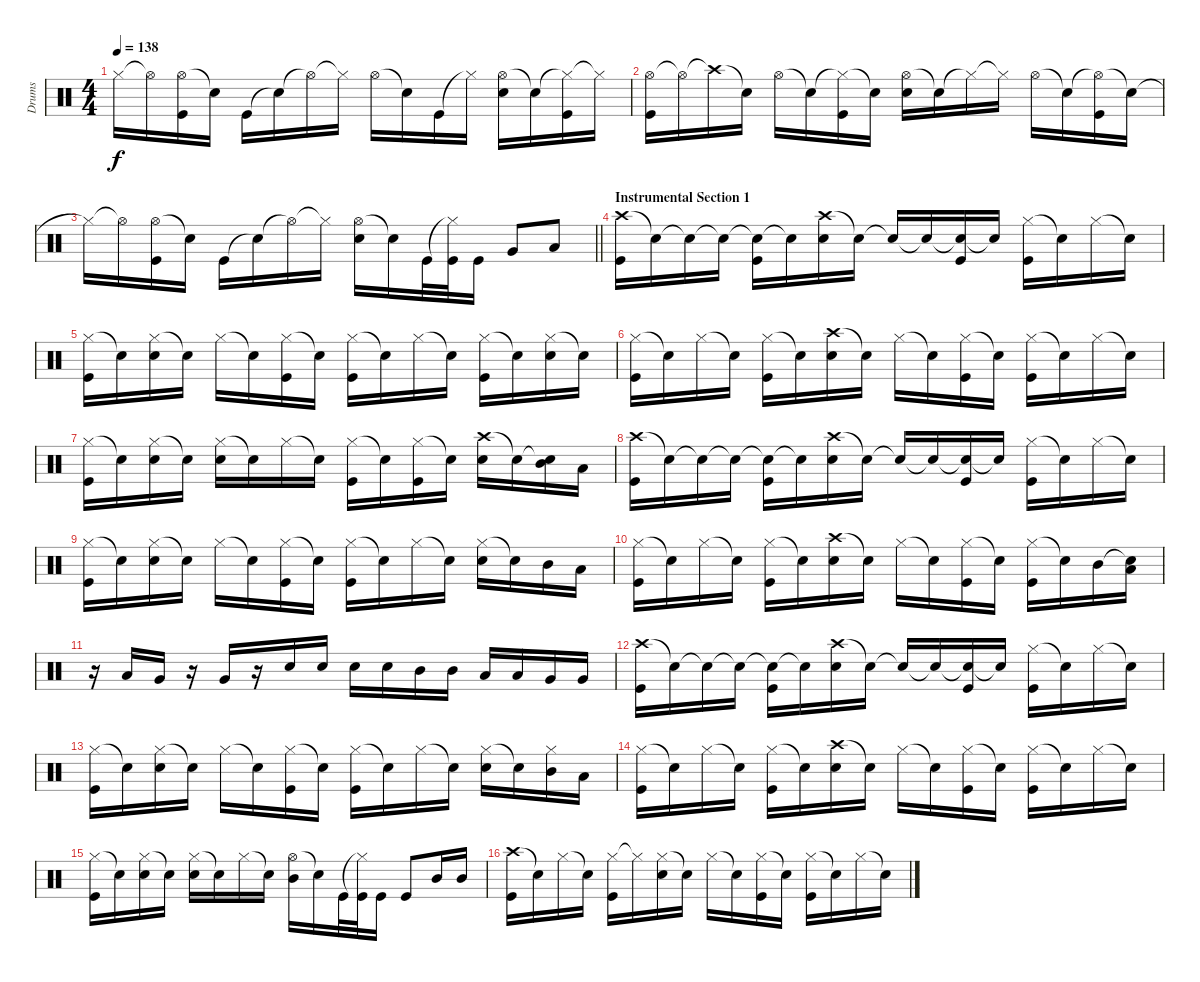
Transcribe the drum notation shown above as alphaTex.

\track ("Drums" "Drums") {instrument percussion}
\staff {score}
\articulation defaults
\ts (4 4)
\tempo 138
\clef neutral
\ks c "Hi-Hat (closed)"{t}.16{dy f} "Hi-Hat (open)"{t}.16
("Hi-Hat (open)" "Kick (hit)").16 "Snare (hit)"{t}.16 "Kick (hit)".16 "Snare (hit)"{t}.16 "Hi-Hat (open)"{t}.16 "Hi-Hat (closed)"{t}.16 "Hi-Hat (open)".16 "Snare (hit)"{t}.16 "Kick (hit)".16 "Hi-Hat (closed)"{t}.16 ("Hi-Hat (open)" "Electric Snare (hit)").16 "Snare (hit)"{t}.16 ("Hi-Hat (closed)"{t} "Kick (hit)").16 "Hi-Hat (closed)"{t}.16 |
("Hi-Hat (open)" "Kick (hit)").16 "Hi-Hat (open)"{t}.16 "Crash high (hit)"{t}.16 "Snare (hit)"{t}.16 "Hi-Hat (open)".16 "Snare (hit)"{t}.16 ("Hi-Hat (closed)"{t} "Kick (hit)").16 "Snare (hit)"{t}.16 ("Hi-Hat (open)" "Electric Snare (hit)").16 "Snare (hit)"{t}.16 "Hi-Hat (closed)"{t}.16 "Hi-Hat (closed)"{t}.16 "Hi-Hat (open)".16 "Snare (hit)"{t}.16 ("Hi-Hat (open)"{t} "Kick (hit)").16 "Snare (hit)"{t}.16 |
\barLineRight lightlight "Hi-Hat (closed)"{t}.16 "Hi-Hat (open)"{t}.16
("Hi-Hat (open)" "Kick (hit)").16 "Snare (hit)"{t}.16 "Kick (hit)".16 "Snare (hit)"{t}.16 "Hi-Hat (open)"{t}.16 "Hi-Hat (closed)"{t}.16 ("Hi-Hat (open)" "Electric Snare (hit)").16 "Snare (hit)"{t}.16 "Kick (hit)".32 ("Hi-Hat (closed)"{t} "Kick (hit)").32 "Kick (hit)".16 "Very Low Tom (hit)".8 "Low Floor Tom (hit)".8 |
\section ("" "Instrumental Section 1")
("Crash high (hit)" "Kick (hit)").16 "Snare (hit)"{t}.16 "Snare (hit)"{t}.16 "Snare (hit)"{t}.16 ("Snare (hit)"{t} "Kick (hit)").16 "Snare (hit)"{t}.16 ("Crash high (hit)" "Electric Snare (hit)").16 "Snare (hit)"{t}.16 "Snare (hit)"{t}.16 "Snare (hit)"{t}.16 ("Snare (hit)"{t} "Kick (hit)").16 "Snare (hit)"{t}.16 ("Hi-Hat (closed)" "Kick (hit)").16 "Snare (hit)"{t}.16 "Hi-Hat (closed)".16 "Snare (hit)"{t}.16 |
("Hi-Hat (closed)" "Kick (hit)").16 "Snare (hit)"{t}.16 ("Hi-Hat (closed)" "Electric Snare (hit)").16 "Snare (hit)"{t}.16 "Hi-Hat (closed)".16 "Snare (hit)"{t}.16 ("Hi-Hat (closed)" "Kick (hit)").16 "Snare (hit)"{t}.16 ("Hi-Hat (closed)" "Kick (hit)").16 "Snare (hit)"{t}.16 "Hi-Hat (closed)".16 "Snare (hit)"{t}.16 ("Hi-Hat (closed)" "Kick (hit)").16 "Snare (hit)"{t}.16 ("Hi-Hat (closed)" "Electric Snare (hit)").16 "Snare (hit)"{t}.16 |
("Hi-Hat (closed)" "Kick (hit)").16 "Snare (hit)"{t}.16 "Hi-Hat (closed)".16 "Snare (hit)"{t}.16 ("Hi-Hat (closed)" "Kick (hit)").16 "Snare (hit)"{t}.16 ("Crash high (hit)" "Electric Snare (hit)").16 "Snare (hit)"{t}.16 "Hi-Hat (closed)".16 "Snare (hit)"{t}.16 ("Hi-Hat (closed)" "Kick (hit)").16 "Snare (hit)"{t}.16 ("Hi-Hat (closed)" "Kick (hit)").16 "Snare (hit)"{t}.16 "Hi-Hat (closed)".16 "Snare (hit)"{t}.16 |
("Hi-Hat (closed)" "Kick (hit)").16 "Snare (hit)"{t}.16 ("Hi-Hat (closed)" "Electric Snare (hit)").16 "Snare (hit)"{t}.16 ("Hi-Hat (closed)" "Electric Snare (hit)").16 "Snare (hit)"{t}.16 "Hi-Hat (closed)".16 "Snare (hit)"{t}.16 ("Hi-Hat (closed)" "Kick (hit)").16 "Snare (hit)"{t}.16 ("Hi-Hat (closed)" "Kick (hit)").16 "Snare (hit)"{t}.16 ("Crash high (hit)" "Electric Snare (hit)").16 "Snare (hit)"{t}.16 ("Snare (hit)"{t} "Mid Tom (hit)").16 "Low Tom (hit)".16 |
("Crash high (hit)" "Kick (hit)").16 "Snare (hit)"{t}.16 "Snare (hit)"{t}.16 "Snare (hit)"{t}.16 ("Snare (hit)"{t} "Kick (hit)").16 "Snare (hit)"{t}.16 ("Crash high (hit)" "Electric Snare (hit)").16 "Snare (hit)"{t}.16 "Snare (hit)"{t}.16 "Snare (hit)"{t}.16 ("Snare (hit)"{t} "Kick (hit)").16 "Snare (hit)"{t}.16 ("Hi-Hat (closed)" "Kick (hit)").16 "Snare (hit)"{t}.16 "Hi-Hat (closed)".16 "Snare (hit)"{t}.16 |
("Hi-Hat (closed)" "Kick (hit)").16 "Snare (hit)"{t}.16 ("Hi-Hat (closed)" "Electric Snare (hit)").16 "Snare (hit)"{t}.16 "Hi-Hat (closed)".16 "Snare (hit)"{t}.16 ("Hi-Hat (closed)" "Kick (hit)").16 "Snare (hit)"{t}.16 ("Hi-Hat (closed)" "Kick (hit)").16 "Snare (hit)"{t}.16 "Hi-Hat (closed)".16 "Snare (hit)"{t}.16 ("Hi-Hat (closed)" "Electric Snare (hit)").16 "Snare (hit)"{t}.16 "Mid Tom (hit)".16 "Low Tom (hit)".16 |
("Hi-Hat (closed)" "Kick (hit)").16 "Snare (hit)"{t}.16 "Hi-Hat (closed)".16 "Snare (hit)"{t}.16 ("Hi-Hat (closed)" "Kick (hit)").16 "Snare (hit)"{t}.16 ("Crash high (hit)" "Electric Snare (hit)").16 "Snare (hit)"{t}.16 "Hi-Hat (closed)".16 "Snare (hit)"{t}.16 ("Hi-Hat (closed)" "Kick (hit)").16 "Snare (hit)"{t}.16 ("Hi-Hat (closed)" "Kick (hit)").16 "Snare (hit)"{t}.16 "Mid Tom (hit)".16 ("Snare (hit)"{t} "Low Tom (hit)").16 |
r.16 "Low Tom (hit)".16 "Very Low Tom (hit)".16 r.16 "Very Low Tom (hit)".16 r.16 "Electric Snare (hit)".16 "Electric Snare (hit)".16 "Electric Snare (hit)".16 "Electric Snare (hit)".16 "Mid Tom (hit)".16 "Mid Tom (hit)".16 "Low Tom (hit)".16 "Low Tom (hit)".16 "Very Low Tom (hit)".16 "Very Low Tom (hit)".16 |
("Crash high (hit)" "Kick (hit)").16 "Snare (hit)"{t}.16 "Snare (hit)"{t}.16 "Snare (hit)"{t}.16 ("Snare (hit)"{t} "Kick (hit)").16 "Snare (hit)"{t}.16 ("Crash high (hit)" "Electric Snare (hit)").16 "Snare (hit)"{t}.16 "Snare (hit)"{t}.16 "Snare (hit)"{t}.16 ("Snare (hit)"{t} "Kick (hit)").16 "Snare (hit)"{t}.16 ("Hi-Hat (closed)" "Kick (hit)").16 "Snare (hit)"{t}.16 "Hi-Hat (closed)".16 "Snare (hit)"{t}.16 |
("Hi-Hat (closed)" "Kick (hit)").16 "Snare (hit)"{t}.16 ("Hi-Hat (closed)" "Electric Snare (hit)").16 "Snare (hit)"{t}.16 "Hi-Hat (closed)".16 "Snare (hit)"{t}.16 ("Hi-Hat (closed)" "Kick (hit)").16 "Snare (hit)"{t}.16 ("Hi-Hat (closed)" "Kick (hit)").16 "Snare (hit)"{t}.16 "Hi-Hat (closed)".16 "Snare (hit)"{t}.16 ("Hi-Hat (closed)" "Electric Snare (hit)").16 "Snare (hit)"{t}.16 ("Hi-Hat (closed)" "Mid Tom (hit)").16 "Low Tom (hit)".16 |
("Hi-Hat (closed)" "Kick (hit)").16 "Snare (hit)"{t}.16 "Hi-Hat (closed)".16 "Snare (hit)"{t}.16 ("Hi-Hat (closed)" "Kick (hit)").16 "Snare (hit)"{t}.16 ("Crash high (hit)" "Electric Snare (hit)").16 "Snare (hit)"{t}.16 "Hi-Hat (closed)".16 "Snare (hit)"{t}.16 ("Hi-Hat (closed)" "Kick (hit)").16 "Snare (hit)"{t}.16 ("Hi-Hat (closed)" "Kick (hit)").16 "Snare (hit)"{t}.16 "Hi-Hat (closed)".16 "Snare (hit)"{t}.16 |
("Hi-Hat (closed)" "Kick (hit)").16 "Snare (hit)"{t}.16 ("Hi-Hat (closed)" "Electric Snare (hit)").16 "Snare (hit)"{t}.16 ("Hi-Hat (closed)" "Electric Snare (hit)").16 "Snare (hit)"{t}.16 "Hi-Hat (closed)".16 "Snare (hit)"{t}.16 ("Hi-Hat (open)" "Mid Tom (hit)").16 "Snare (hit)"{t}.16 "Kick (hit)".32 ("Hi-Hat (closed)"{t} "Kick (hit)").32 "Kick (hit)".16 "Kick (hit)".8 "Mid Tom (hit)".16 "Mid Tom (hit)".16 |
("Crash high (hit)" "Kick (hit)").16 "Snare (hit)"{t}.16 "Hi-Hat (closed)".16 "Snare (hit)"{t}.16 ("Hi-Hat (closed)" "Kick (hit)").16 "Hi-Hat (closed)"{t}.16 ("Hi-Hat (closed)" "Electric Snare (hit)").16 "Snare (hit)"{t}.16 "Hi-Hat (closed)".16 "Snare (hit)"{t}.16 ("Hi-Hat (closed)" "Kick (hit)").16 "Snare (hit)"{t}.16 ("Hi-Hat (closed)" "Kick (hit)").16 "Snare (hit)"{t}.16 "Hi-Hat (closed)".16 "Snare (hit)"{t}.16
